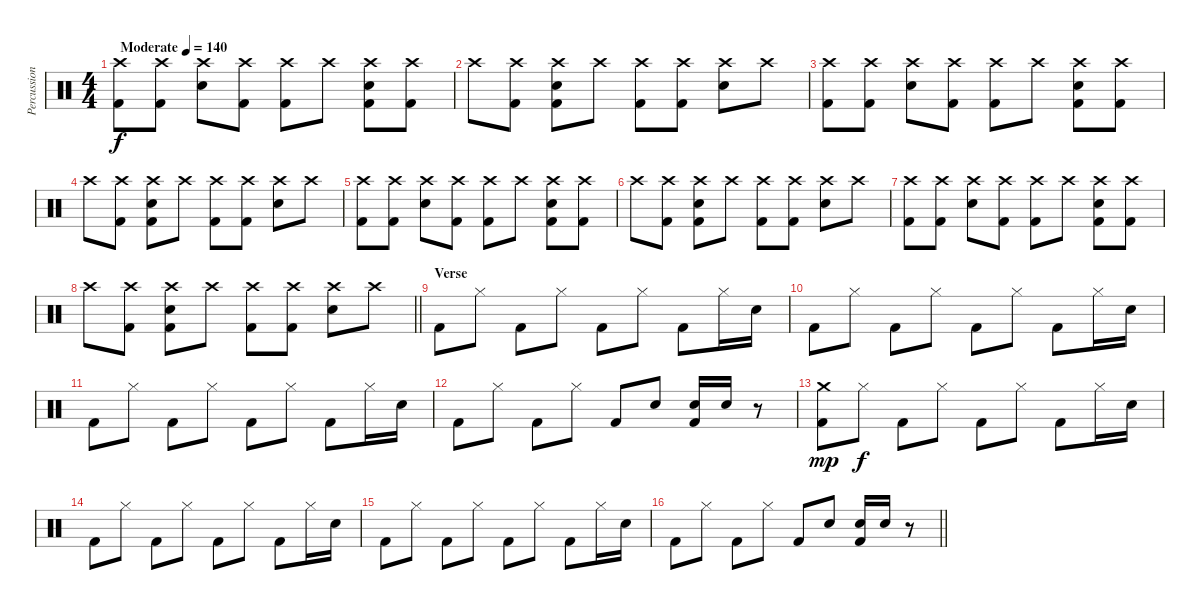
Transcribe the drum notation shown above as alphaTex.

\track ("Percussion" "Percussion") {instrument percussion}
\staff {score}
\articulation defaults
\ts (4 4)
\tempo (140 "Moderate")
\clef neutral
\ks c
("Crash high (hit)" "Kick (hit) 2").8{dy f} ("Crash high (hit)" "Kick (hit) 2").8 ("Crash high (hit)" "Electric Snare (hit)").8 ("Crash high (hit)" "Kick (hit) 2").8 ("Crash high (hit)" "Kick (hit) 2").8 "Crash high (hit)".8 ("Crash high (hit)" "Electric Snare (hit)" "Kick (hit) 2").8 ("Crash high (hit)" "Kick (hit) 2").8 |
"Crash high (hit)".8 ("Crash high (hit)" "Kick (hit) 2").8 ("Crash high (hit)" "Electric Snare (hit)" "Kick (hit) 2").8 "Crash high (hit)".8 ("Crash high (hit)" "Kick (hit) 2").8 ("Crash high (hit)" "Kick (hit) 2").8 ("Crash high (hit)" "Electric Snare (hit)").8 "Crash high (hit)".8 |
("Crash high (hit)" "Kick (hit) 2").8 ("Crash high (hit)" "Kick (hit) 2").8 ("Crash high (hit)" "Electric Snare (hit)").8 ("Crash high (hit)" "Kick (hit) 2").8 ("Crash high (hit)" "Kick (hit) 2").8 "Crash high (hit)".8 ("Crash high (hit)" "Electric Snare (hit)" "Kick (hit) 2").8 ("Crash high (hit)" "Kick (hit) 2").8 |
"Crash high (hit)".8 ("Crash high (hit)" "Kick (hit) 2").8 ("Crash high (hit)" "Electric Snare (hit)" "Kick (hit) 2").8 "Crash high (hit)".8 ("Crash high (hit)" "Kick (hit) 2").8 ("Crash high (hit)" "Kick (hit) 2").8 ("Crash high (hit)" "Electric Snare (hit)").8 "Crash high (hit)".8 |
("Crash high (hit)" "Kick (hit) 2").8 ("Crash high (hit)" "Kick (hit) 2").8 ("Crash high (hit)" "Electric Snare (hit)").8 ("Crash high (hit)" "Kick (hit) 2").8 ("Crash high (hit)" "Kick (hit) 2").8 "Crash high (hit)".8 ("Crash high (hit)" "Electric Snare (hit)" "Kick (hit) 2").8 ("Crash high (hit)" "Kick (hit) 2").8 |
"Crash high (hit)".8 ("Crash high (hit)" "Kick (hit) 2").8 ("Crash high (hit)" "Electric Snare (hit)" "Kick (hit) 2").8 "Crash high (hit)".8 ("Crash high (hit)" "Kick (hit) 2").8 ("Crash high (hit)" "Kick (hit) 2").8 ("Crash high (hit)" "Electric Snare (hit)").8 "Crash high (hit)".8 |
("Crash high (hit)" "Kick (hit) 2").8 ("Crash high (hit)" "Kick (hit) 2").8 ("Crash high (hit)" "Electric Snare (hit)").8 ("Crash high (hit)" "Kick (hit) 2").8 ("Crash high (hit)" "Kick (hit) 2").8 "Crash high (hit)".8 ("Crash high (hit)" "Electric Snare (hit)" "Kick (hit) 2").8 ("Crash high (hit)" "Kick (hit) 2").8 |
\barLineRight lightlight "Crash high (hit)".8
("Crash high (hit)" "Kick (hit) 2").8 ("Crash high (hit)" "Electric Snare (hit)" "Kick (hit) 2").8 "Crash high (hit)".8 ("Crash high (hit)" "Kick (hit) 2").8 ("Crash high (hit)" "Kick (hit) 2").8 ("Crash high (hit)" "Electric Snare (hit)").8 "Crash high (hit)".8 |
\section ("" "Verse")
"Kick (hit) 2".8 "Hi-Hat (closed)".8 "Kick (hit) 2".8 "Hi-Hat (closed)".8 "Kick (hit) 2".8 "Hi-Hat (closed)".8 "Kick (hit) 2".8 "Hi-Hat (closed)".16 "Electric Snare (hit)".16 |
"Kick (hit) 2".8 "Hi-Hat (closed)".8 "Kick (hit) 2".8 "Hi-Hat (closed)".8 "Kick (hit) 2".8 "Hi-Hat (closed)".8 "Kick (hit) 2".8 "Hi-Hat (closed)".16 "Electric Snare (hit)".16 |
"Kick (hit) 2".8 "Hi-Hat (closed)".8 "Kick (hit) 2".8 "Hi-Hat (closed)".8 "Kick (hit) 2".8 "Hi-Hat (closed)".8 "Kick (hit) 2".8 "Hi-Hat (closed)".16 "Electric Snare (hit)".16 |
"Kick (hit) 2".8 "Hi-Hat (closed)".8 "Kick (hit) 2".8 "Hi-Hat (closed)".8 "Kick (hit) 2".8 "Electric Snare (hit)".8 ("Electric Snare (hit)" "Kick (hit) 2").16 "Electric Snare (hit)".16 r.8 |
("Crash medium (hit)" "Kick (hit) 2").8{dy mp} "Hi-Hat (closed)".8{dy f} "Kick (hit) 2".8 "Hi-Hat (closed)".8 "Kick (hit) 2".8 "Hi-Hat (closed)".8 "Kick (hit) 2".8 "Hi-Hat (closed)".16 "Electric Snare (hit)".16 |
"Kick (hit) 2".8 "Hi-Hat (closed)".8 "Kick (hit) 2".8 "Hi-Hat (closed)".8 "Kick (hit) 2".8 "Hi-Hat (closed)".8 "Kick (hit) 2".8 "Hi-Hat (closed)".16 "Electric Snare (hit)".16 |
"Kick (hit) 2".8 "Hi-Hat (closed)".8 "Kick (hit) 2".8 "Hi-Hat (closed)".8 "Kick (hit) 2".8 "Hi-Hat (closed)".8 "Kick (hit) 2".8 "Hi-Hat (closed)".16 "Electric Snare (hit)".16 |
\barLineRight lightlight "Kick (hit) 2".8 "Hi-Hat (closed)".8 "Kick (hit) 2".8 "Hi-Hat (closed)".8 "Kick (hit) 2".8 "Electric Snare (hit)".8
("Electric Snare (hit)" "Kick (hit) 2").16 "Electric Snare (hit)".16 r.8
